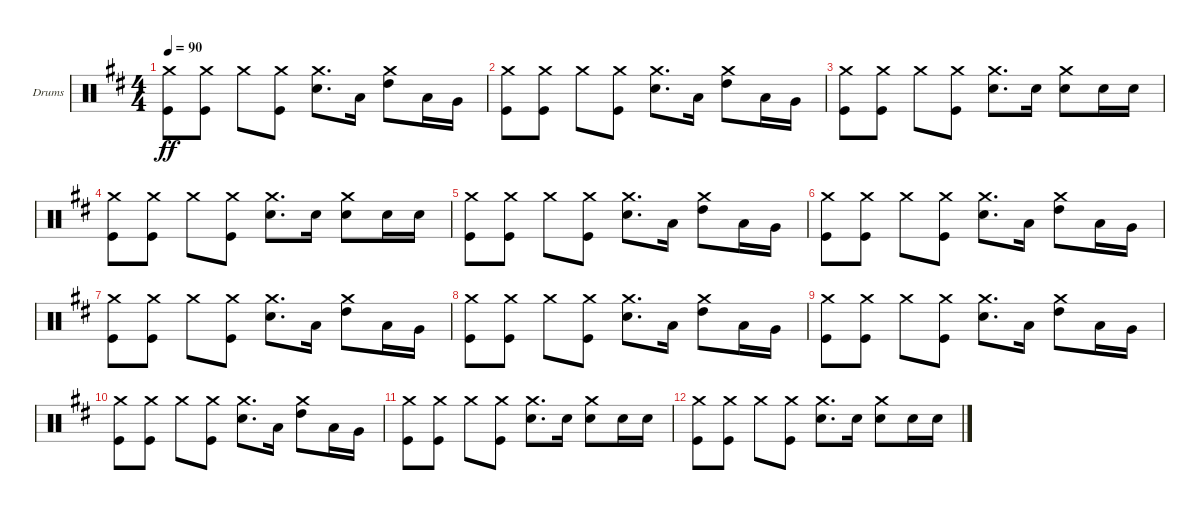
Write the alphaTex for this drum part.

\defaultSystemsLayout 4
\bracketExtendMode groupsimilarinstruments
\firstSystemTrackNameOrientation horizontal
\otherSystemsTrackNameOrientation horizontal
\track ("Drumkit" "Drums") {instrument percussion}
\staff {score}
\articulation defaults
\ts (4 4)
\tempo 90
\clef neutral
\scale
0.333333
\ks d
("Kick (hit)" "Crash medium (hit)").8{dy ff} ("Crash medium (hit)" "Kick (hit)").8 "Crash medium (hit)".8 ("Crash medium (hit)" "Kick (hit)").8 ("Crash medium (hit)" "Snare (hit) 2").8{d} "Low Tom (hit)".16 ("High Tom (hit)" "Crash medium (hit)").8 "Low Tom (hit)".16 "Very Low Tom (hit)".16 |
\scale
0.333333 ("Kick (hit)" "Crash medium (hit)").8 ("Crash medium (hit)" "Kick (hit)").8 "Crash medium (hit)".8 ("Crash medium (hit)" "Kick (hit)").8 ("Crash medium (hit)" "Snare (hit) 2").8{d} "Low Tom (hit)".16 ("High Tom (hit)" "Crash medium (hit)").8 "Low Tom (hit)".16 "Very Low Tom (hit)".16 |
\scale
0.333333 ("Kick (hit)" "Crash medium (hit)").8 ("Crash medium (hit)" "Kick (hit)").8 "Crash medium (hit)".8 ("Crash medium (hit)" "Kick (hit)").8 ("Crash medium (hit)" "Snare (hit) 2").8{d} "Snare (hit) 2".16 ("Crash medium (hit)" "Snare (hit) 2").8 "Snare (hit) 2".16 "Snare (hit) 2".16 |
\scale
0.333333 ("Kick (hit)" "Crash medium (hit)").8 ("Crash medium (hit)" "Kick (hit)").8 "Crash medium (hit)".8 ("Crash medium (hit)" "Kick (hit)").8 ("Crash medium (hit)" "Snare (hit) 2").8{d} "Snare (hit) 2".16 ("Crash medium (hit)" "Snare (hit) 2").8 "Snare (hit) 2".16 "Snare (hit) 2".16 |
\scale
0.333333 ("Kick (hit)" "Crash medium (hit)").8 ("Crash medium (hit)" "Kick (hit)").8 "Crash medium (hit)".8 ("Crash medium (hit)" "Kick (hit)").8 ("Crash medium (hit)" "Snare (hit) 2").8{d} "Low Tom (hit)".16 ("High Tom (hit)" "Crash medium (hit)").8 "Low Tom (hit)".16 "Very Low Tom (hit)".16 |
\scale
0.333333 ("Kick (hit)" "Crash medium (hit)").8 ("Crash medium (hit)" "Kick (hit)").8 "Crash medium (hit)".8 ("Crash medium (hit)" "Kick (hit)").8 ("Crash medium (hit)" "Snare (hit) 2").8{d} "Low Tom (hit)".16 ("High Tom (hit)" "Crash medium (hit)").8 "Low Tom (hit)".16 "Very Low Tom (hit)".16 |
\scale
0.333333 ("Kick (hit)" "Crash medium (hit)").8 ("Crash medium (hit)" "Kick (hit)").8 "Crash medium (hit)".8 ("Crash medium (hit)" "Kick (hit)").8 ("Crash medium (hit)" "Snare (hit) 2").8{d} "Low Tom (hit)".16 ("High Tom (hit)" "Crash medium (hit)").8 "Low Tom (hit)".16 "Very Low Tom (hit)".16 |
\scale
0.333333 ("Kick (hit)" "Crash medium (hit)").8 ("Crash medium (hit)" "Kick (hit)").8 "Crash medium (hit)".8 ("Crash medium (hit)" "Kick (hit)").8 ("Crash medium (hit)" "Snare (hit) 2").8{d} "Low Tom (hit)".16 ("High Tom (hit)" "Crash medium (hit)").8 "Low Tom (hit)".16 "Very Low Tom (hit)".16 |
\scale
0.333333 ("Kick (hit)" "Crash medium (hit)").8 ("Crash medium (hit)" "Kick (hit)").8 "Crash medium (hit)".8 ("Crash medium (hit)" "Kick (hit)").8 ("Crash medium (hit)" "Snare (hit) 2").8{d} "Low Tom (hit)".16 ("High Tom (hit)" "Crash medium (hit)").8 "Low Tom (hit)".16 "Very Low Tom (hit)".16 |
\scale
0.333333 ("Kick (hit)" "Crash medium (hit)").8 ("Crash medium (hit)" "Kick (hit)").8 "Crash medium (hit)".8 ("Crash medium (hit)" "Kick (hit)").8 ("Crash medium (hit)" "Snare (hit) 2").8{d} "Low Tom (hit)".16 ("High Tom (hit)" "Crash medium (hit)").8 "Low Tom (hit)".16 "Very Low Tom (hit)".16 |
("Kick (hit)" "Crash medium (hit)").8 ("Crash medium (hit)" "Kick (hit)").8 "Crash medium (hit)".8 ("Crash medium (hit)" "Kick (hit)").8 ("Crash medium (hit)" "Snare (hit) 2").8{d} "Snare (hit) 2".16 ("Crash medium (hit)" "Snare (hit) 2").8 "Snare (hit) 2".16 "Snare (hit) 2".16 |
("Kick (hit)" "Crash medium (hit)").8 ("Crash medium (hit)" "Kick (hit)").8 "Crash medium (hit)".8 ("Crash medium (hit)" "Kick (hit)").8 ("Crash medium (hit)" "Snare (hit) 2").8{d} "Snare (hit) 2".16 ("Crash medium (hit)" "Snare (hit) 2").8 "Snare (hit) 2".16 "Snare (hit) 2".16
